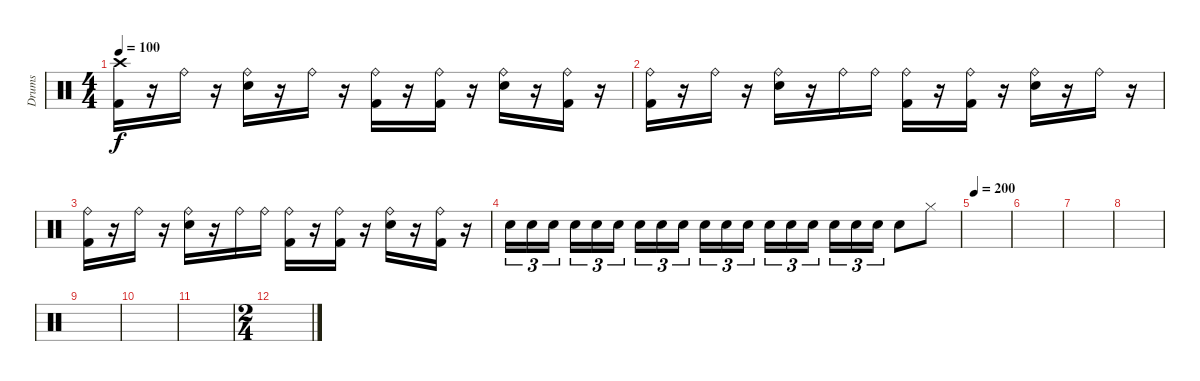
\track ("Drums" "Drums") {instrument percussion}
\staff {score}
\articulation defaults
\ts (4 4)
\tempo 100
\clef neutral
\ks c
("Crash high (hit)" "Kick (hit) 2").16{dy f} r.16 "Ride (bell)".16 r.16 ("Ride (bell)" "Snare (hit) 2").16 r.16 "Ride (bell)".16 r.16 ("Ride (bell)" "Kick (hit) 2").16 r.16 ("Ride (bell)" "Kick (hit) 2").16 r.16 ("Ride (bell)" "Snare (hit) 2").16 r.16 ("Ride (bell)" "Kick (hit) 2").16 r.16 |
("Ride (bell)" "Kick (hit) 2").16 r.16 "Ride (bell)".16 r.16 ("Ride (bell)" "Snare (hit) 2").16 r.16 "Ride (bell)".16 "Ride (bell)".16 ("Ride (bell)" "Kick (hit) 2").16 r.16 ("Ride (bell)" "Kick (hit) 2").16 r.16 ("Ride (bell)" "Snare (hit) 2").16 r.16 "Ride (bell)".16 r.16 |
("Ride (bell)" "Kick (hit) 2").16 r.16 "Ride (bell)".16 r.16 ("Ride (bell)" "Snare (hit) 2").16 r.16 "Ride (bell)".16 "Ride (bell)".16 ("Ride (bell)" "Kick (hit) 2").16 r.16 ("Ride (bell)" "Kick (hit) 2").16 r.16 ("Ride (bell)" "Snare (hit) 2").16 r.16 ("Ride (bell)" "Kick (hit) 2").16 r.16{volume 0} |
"Snare (hit) 2".16{tu (3 2) volume 9} "Snare (hit) 2".16{tu (3 2)} "Snare (hit) 2".16{tu (3 2)} "Snare (hit) 2".16{tu (3 2)} "Snare (hit) 2".16{tu (3 2)} "Snare (hit) 2".16{tu (3 2)} "Snare (hit) 2".16{tu (3 2)} "Snare (hit) 2".16{tu (3 2)} "Snare (hit) 2".16{tu (3 2)} "Snare (hit) 2".16{tu (3 2)} "Snare (hit) 2".16{tu (3 2)} "Snare (hit) 2".16{tu (3 2)} "Snare (hit) 2".16{tu (3 2)} "Snare (hit) 2".16{tu (3 2)} "Snare (hit) 2".16{tu (3 2)} "Snare (hit) 2".16{tu (3 2)} "Snare (hit) 2".16{tu (3 2)} "Snare (hit) 2".16{tu (3 2)} "Snare (hit) 2".8 "Hi-Hat (closed)".8 |
\tempo 200
|
|
|
|
|
|
|
\ts (2 4)
